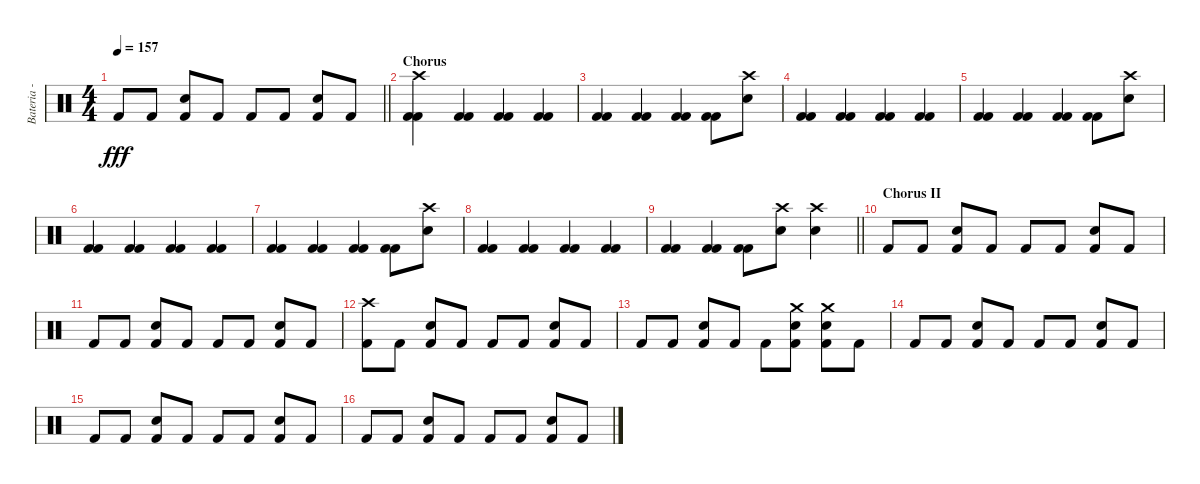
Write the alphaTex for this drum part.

\track ("Bateria - Larzon" "Bateria - ") {instrument percussion}
\staff {score}
\articulation defaults
\ts (4 4)
\tempo 157
\clef neutral
\barLineRight lightlight
\ks c "Kick (hit) 2".8{dy fff} "Kick (hit) 2".8
("Kick (hit) 2" "Snare (hit) 2").8 "Kick (hit) 2".8 "Kick (hit) 2".8 "Kick (hit) 2".8 ("Kick (hit) 2" "Snare (hit) 2").8 "Kick (hit) 2".8 |
\section ("" "Chorus")
("Kick (hit) 2" "Kick (hit) 2" "Crash high (hit)").4 ("Kick (hit) 2" "Kick (hit) 2").4 ("Kick (hit) 2" "Kick (hit) 2").4 ("Kick (hit) 2" "Kick (hit) 2").4 |
("Kick (hit) 2" "Kick (hit) 2").4 ("Kick (hit) 2" "Kick (hit) 2").4 ("Kick (hit) 2" "Kick (hit) 2").4 ("Kick (hit) 2" "Kick (hit) 2").8 ("Crash high (hit)" "Snare (hit) 2").8 |
("Kick (hit) 2" "Kick (hit) 2").4 ("Kick (hit) 2" "Kick (hit) 2").4 ("Kick (hit) 2" "Kick (hit) 2").4 ("Kick (hit) 2" "Kick (hit) 2").4 |
("Kick (hit) 2" "Kick (hit) 2").4 ("Kick (hit) 2" "Kick (hit) 2").4 ("Kick (hit) 2" "Kick (hit) 2").4 ("Kick (hit) 2" "Kick (hit) 2").8 ("Crash high (hit)" "Snare (hit) 2").8 |
("Kick (hit) 2" "Kick (hit) 2").4 ("Kick (hit) 2" "Kick (hit) 2").4 ("Kick (hit) 2" "Kick (hit) 2").4 ("Kick (hit) 2" "Kick (hit) 2").4 |
("Kick (hit) 2" "Kick (hit) 2").4 ("Kick (hit) 2" "Kick (hit) 2").4 ("Kick (hit) 2" "Kick (hit) 2").4 ("Kick (hit) 2" "Kick (hit) 2").8 ("Crash high (hit)" "Snare (hit) 2").8 |
("Kick (hit) 2" "Kick (hit) 2").4 ("Kick (hit) 2" "Kick (hit) 2").4 ("Kick (hit) 2" "Kick (hit) 2").4 ("Kick (hit) 2" "Kick (hit) 2").4 |
\barLineRight lightlight
("Kick (hit) 2" "Kick (hit) 2").4 ("Kick (hit) 2" "Kick (hit) 2").4 ("Kick (hit) 2" "Kick (hit) 2").8 ("Crash high (hit)" "Snare (hit) 2").8 ("Crash high (hit)" "Snare (hit) 2").4 |
\section ("" "Chorus II")
"Kick (hit) 2".8 "Kick (hit) 2".8 ("Kick (hit) 2" "Snare (hit) 2").8 "Kick (hit) 2".8 "Kick (hit) 2".8 "Kick (hit) 2".8 ("Kick (hit) 2" "Snare (hit) 2").8 "Kick (hit) 2".8 |
"Kick (hit) 2".8 "Kick (hit) 2".8 ("Kick (hit) 2" "Snare (hit) 2").8 "Kick (hit) 2".8 "Kick (hit) 2".8 "Kick (hit) 2".8 ("Kick (hit) 2" "Snare (hit) 2").8 "Kick (hit) 2".8 |
("Kick (hit) 2" "Crash high (hit)").8 "Kick (hit) 2".8 ("Kick (hit) 2" "Snare (hit) 2").8 "Kick (hit) 2".8 "Kick (hit) 2".8 "Kick (hit) 2".8 ("Kick (hit) 2" "Snare (hit) 2").8 "Kick (hit) 2".8 |
"Kick (hit) 2".8 "Kick (hit) 2".8 ("Kick (hit) 2" "Snare (hit) 2").8 "Kick (hit) 2".8 "Kick (hit) 2".8 ("Kick (hit) 2" "Crash medium (hit)" "Snare (hit) 2").8 ("Kick (hit) 2" "Crash medium (hit)" "Snare (hit) 2").8 "Kick (hit) 2".8 |
"Kick (hit) 2".8 "Kick (hit) 2".8 ("Kick (hit) 2" "Snare (hit) 2").8 "Kick (hit) 2".8 "Kick (hit) 2".8 "Kick (hit) 2".8 ("Kick (hit) 2" "Snare (hit) 2").8 "Kick (hit) 2".8 |
"Kick (hit) 2".8 "Kick (hit) 2".8 ("Kick (hit) 2" "Snare (hit) 2").8 "Kick (hit) 2".8 "Kick (hit) 2".8 "Kick (hit) 2".8 ("Kick (hit) 2" "Snare (hit) 2").8 "Kick (hit) 2".8 |
"Kick (hit) 2".8 "Kick (hit) 2".8 ("Kick (hit) 2" "Snare (hit) 2").8 "Kick (hit) 2".8 "Kick (hit) 2".8 "Kick (hit) 2".8 ("Kick (hit) 2" "Snare (hit) 2").8 "Kick (hit) 2".8
